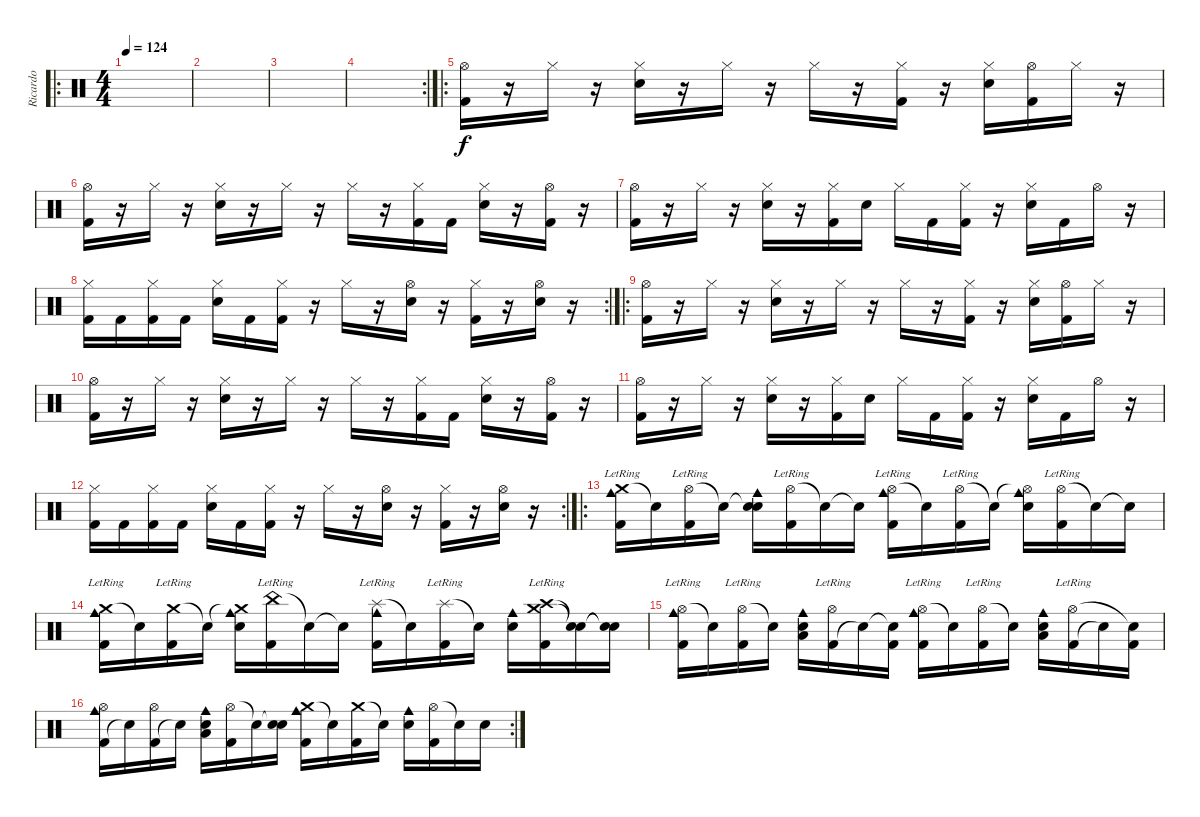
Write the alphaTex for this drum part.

\track ("Ricardo" "Ricardo") {instrument percussion}
\staff {score}
\articulation defaults
\ro
\ts (4 4)
\tempo 124
\clef neutral
\ks c
|
|
|
\rc 2
|
\ro
("Hi-Hat (open)" "Kick (hit) 2").16 r.16 "Hi-Hat (closed)".16 r.16 ("Hi-Hat (closed)" "Electric Snare (hit)").16 r.16 "Hi-Hat (closed)".16 r.16 "Hi-Hat (closed)".16 r.16 ("Hi-Hat (closed)" "Kick (hit) 2").16 r.16 ("Hi-Hat (closed)" "Electric Snare (hit)").16 ("Hi-Hat (open)" "Kick (hit) 2").16 "Hi-Hat (closed)".16 r.16 |
("Hi-Hat (open)" "Kick (hit) 2").16 r.16 "Hi-Hat (closed)".16 r.16 ("Hi-Hat (closed)" "Electric Snare (hit)").16 r.16 "Hi-Hat (closed)".16 r.16 "Hi-Hat (closed)".16 r.16 ("Hi-Hat (closed)" "Kick (hit) 2").16 "Kick (hit) 2".16 ("Hi-Hat (closed)" "Electric Snare (hit)").16 r.16 ("Hi-Hat (open)" "Kick (hit) 2").16 r.16 |
("Hi-Hat (open)" "Kick (hit) 2").16 r.16 "Hi-Hat (closed)".16 r.16 ("Hi-Hat (closed)" "Electric Snare (hit)").16 r.16 ("Hi-Hat (closed)" "Kick (hit) 2").16 "Electric Snare (hit)".16 "Hi-Hat (closed)".16 "Kick (hit) 2".16 ("Hi-Hat (closed)" "Kick (hit) 2").16 r.16 ("Hi-Hat (closed)" "Electric Snare (hit)").16 "Kick (hit) 2".16 "Hi-Hat (open)".16 r.16 |
\rc 2
("Hi-Hat (closed)" "Kick (hit) 2").16 "Kick (hit) 2".16 ("Hi-Hat (closed)" "Kick (hit) 2").16 "Kick (hit) 2".16 ("Hi-Hat (closed)" "Electric Snare (hit)").16 "Kick (hit) 2".16 ("Hi-Hat (closed)" "Kick (hit) 2").16 r.16 "Hi-Hat (closed)".16 r.16 ("Hi-Hat (open)" "Electric Snare (hit)").16 r.16 ("Hi-Hat (closed)" "Kick (hit) 2").16 r.16 ("Hi-Hat (open)" "Electric Snare (hit)").16 r.16 |
\ro
("Hi-Hat (open)" "Kick (hit) 2").16 r.16 "Hi-Hat (closed)".16 r.16 ("Hi-Hat (closed)" "Electric Snare (hit)").16 r.16 "Hi-Hat (closed)".16 r.16 "Hi-Hat (closed)".16 r.16 ("Hi-Hat (closed)" "Kick (hit) 2").16 r.16 ("Hi-Hat (closed)" "Electric Snare (hit)").16 ("Hi-Hat (open)" "Kick (hit) 2").16 "Hi-Hat (closed)".16 r.16 |
("Hi-Hat (open)" "Kick (hit) 2").16 r.16 "Hi-Hat (closed)".16 r.16 ("Hi-Hat (closed)" "Electric Snare (hit)").16 r.16 "Hi-Hat (closed)".16 r.16 "Hi-Hat (closed)".16 r.16 ("Hi-Hat (closed)" "Kick (hit) 2").16 "Kick (hit) 2".16 ("Hi-Hat (closed)" "Electric Snare (hit)").16 r.16 ("Hi-Hat (open)" "Kick (hit) 2").16 r.16 |
("Hi-Hat (open)" "Kick (hit) 2").16 r.16 "Hi-Hat (closed)".16 r.16 ("Hi-Hat (closed)" "Electric Snare (hit)").16 r.16 ("Hi-Hat (closed)" "Kick (hit) 2").16 "Electric Snare (hit)".16 "Hi-Hat (closed)".16 "Kick (hit) 2".16 ("Hi-Hat (closed)" "Kick (hit) 2").16 r.16 ("Hi-Hat (closed)" "Electric Snare (hit)").16 "Kick (hit) 2".16 "Hi-Hat (open)".16 r.16 |
\rc 2
("Hi-Hat (closed)" "Kick (hit) 2").16 "Kick (hit) 2".16 ("Hi-Hat (closed)" "Kick (hit) 2").16 "Kick (hit) 2".16 ("Hi-Hat (closed)" "Electric Snare (hit)").16 "Kick (hit) 2".16 ("Hi-Hat (closed)" "Kick (hit) 2").16 r.16 "Hi-Hat (closed)".16 r.16 ("Hi-Hat (open)" "Electric Snare (hit)").16 r.16 ("Hi-Hat (closed)" "Kick (hit) 2").16 r.16 ("Hi-Hat (open)" "Electric Snare (hit)").16 r.16 |
\ro
("Crash medium (hit)"{lr} "Kick (hit) 2" "Cowbell medium (hit)").16 "Snare (hit)"{t}.16 ("Hi-Hat (open)"{lr} "Kick (hit) 2").16 "Snare (hit)"{t}.16 ("Snare (hit)"{t} "Electric Snare (hit)" "Cowbell medium (hit)").16 ("Hi-Hat (open)"{lr} "Kick (hit) 2").16 "Snare (hit)"{t}.16 "Snare (hit)"{t}.16 ("Hi-Hat (open)"{lr} "Kick (hit) 2" "Cowbell medium (hit)").16 "Snare (hit)"{t}.16 ("Hi-Hat (open)"{lr} "Kick (hit) 2").16 "Electric Snare (hit)"{t}.16 ("Hi-Hat (open)"{t} "Electric Snare (hit)" "Cowbell medium (hit)").16 ("Hi-Hat (open)"{lr} "Kick (hit) 2").16 "Snare (hit)"{t}.16 "Snare (hit)"{t}.16 |
("Crash medium (hit)"{lr} "Kick (hit) 2" "Cowbell medium (hit)").16 "Snare (hit)"{t}.16 ("Crash medium (hit)"{lr} "Kick (hit) 2").16 "Snare (hit)"{t}.16 ("Crash medium (hit)"{t} "Electric Snare (hit)" "Cowbell medium (hit)").16 ("China (hit)"{lr} "Kick (hit) 2").16 "Snare (hit)"{t}.16 "Snare (hit)"{t}.16 ("Splash (hit)"{lr} "Kick (hit) 2" "Cowbell medium (hit)").16 "Snare (hit)"{t}.16 ("Splash (hit)"{lr} "Kick (hit) 2").16 "Snare (hit)"{t}.16 ("Electric Snare (hit)" "Cowbell medium (hit)").16 ("Crash high (hit)"{lr} "Crash medium (hit)"{lr} "Kick (hit) 2").16 ("Snare (hit)"{t} "Snare (hit)"{t}).16 ("Snare (hit)"{t} "Snare (hit)"{t}).16 |
("Hi-Hat (open)"{lr} "Kick (hit) 2" "Cowbell medium (hit)").16 "Snare (hit)"{t}.16 ("Hi-Hat (open)"{lr} "Kick (hit) 2").16 "Snare (hit)"{t}.16 ("Electric Snare (hit)" "Low Floor Tom (hit)" "Cowbell medium (hit)").16 ("Kick (hit) 2" "Hi-Hat (open)"{lr}).16 "Snare (hit)"{t}.16 ("Snare (hit)"{t} "Kick (hit) 2").16 ("Hi-Hat (open)"{lr} "Kick (hit) 2" "Cowbell medium (hit)").16 "Snare (hit)"{t}.16 ("Hi-Hat (open)"{lr} "Kick (hit) 2").16 "Snare (hit)"{t}.16 ("Electric Snare (hit)" "Low Floor Tom (hit)" "Cowbell medium (hit)").16 ("Kick (hit) 2" "Hi-Hat (open)"{lr}).16 "Snare (hit)"{t}.16 ("Kick (hit) 2" "Snare (hit)"{t}).16 |
\rc 2
("Kick (hit) 2" "Hi-Hat (open)" "Cowbell medium (hit)").16 "Snare (hit)"{t}.16 ("Kick (hit) 2" "Hi-Hat (open)").16 "Snare (hit)"{t}.16 ("Low Floor Tom (hit)" "Electric Snare (hit)" "Cowbell medium (hit)").16 ("Hi-Hat (open)" "Kick (hit) 2").16 "Snare (hit)"{t}.16 ("Snare (hit)"{t} "Electric Snare (hit)").16 ("Crash medium (hit)" "Kick (hit) 2" "Cowbell medium (hit)").16 "Snare (hit)"{t}.16 ("Crash medium (hit)" "Kick (hit) 2").16 "Snare (hit)"{t}.16 ("Electric Snare (hit)" "Cowbell medium (hit)").16 ("Hi-Hat (open)" "Kick (hit) 2").16 "Snare (hit)"{t}.16 "Electric Snare (hit)".16
